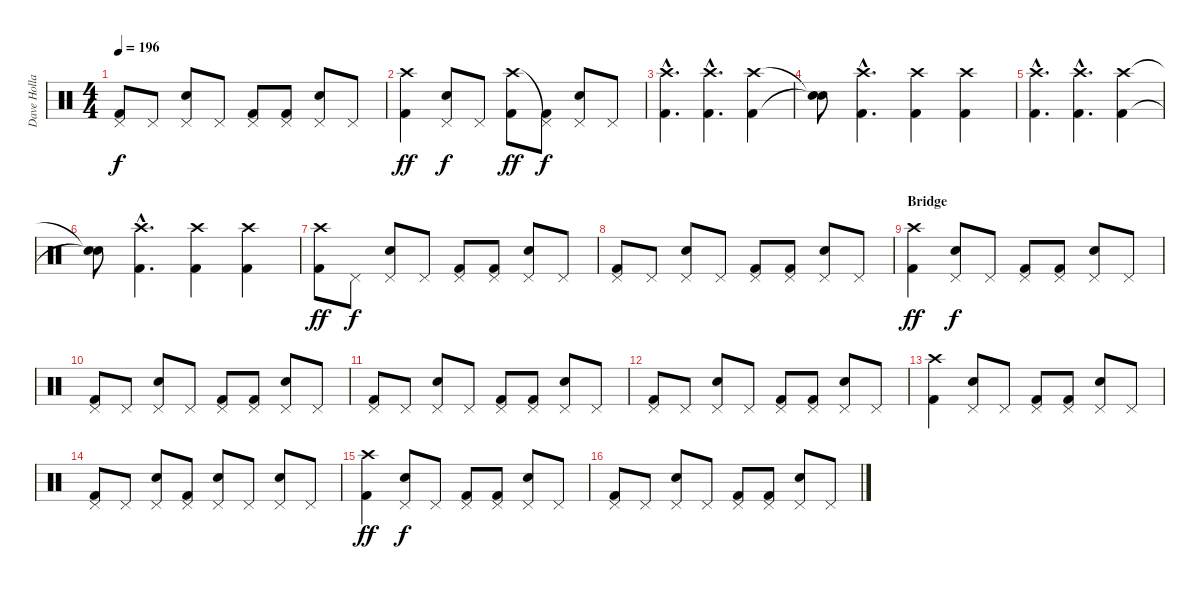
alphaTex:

\track ("Dave Holland" "Dave Holla") {instrument percussion}
\staff {score}
\articulation defaults
\ts (4 4)
\tempo 196
\clef neutral
\ks c
("Pedal Hi-Hat (hit)" "Kick (hit) 2").8{dy f} "Pedal Hi-Hat (hit)".8 ("Pedal Hi-Hat (hit)" "Snare (hit) 2").8 "Pedal Hi-Hat (hit)".8 ("Pedal Hi-Hat (hit)" "Kick (hit) 2").8 ("Pedal Hi-Hat (hit)" "Kick (hit) 2").8 ("Pedal Hi-Hat (hit)" "Snare (hit) 2").8 "Pedal Hi-Hat (hit)".8 |
("Crash high (hit)" "Kick (hit) 2").4{dy ff} ("Pedal Hi-Hat (hit)" "Snare (hit) 2").8{dy f} "Pedal Hi-Hat (hit)".8 ("Crash high (hit)" "Kick (hit) 2").8{dy ff} ("Pedal Hi-Hat (hit)"{t} "Kick (hit) 2").8{dy f} ("Pedal Hi-Hat (hit)" "Snare (hit) 2").8 "Pedal Hi-Hat (hit)".8 |
("Crash high (hit)"{hac} "Kick (hit) 2"{hac}).4{d} ("Crash high (hit)"{hac} "Kick (hit) 2"{hac}).4{d} ("Crash high (hit)" "Kick (hit) 2").4 |
("Snare (hit)"{t} "Snare (hit)"{t}).8 ("Crash high (hit)"{hac} "Kick (hit) 2"{hac}).4{d} ("Crash high (hit)" "Kick (hit) 2").4 ("Crash high (hit)" "Kick (hit) 2").4 |
("Crash high (hit)"{hac} "Kick (hit) 2"{hac}).4{d} ("Crash high (hit)"{hac} "Kick (hit) 2"{hac}).4{d} ("Crash high (hit)" "Kick (hit) 2").4 |
("Snare (hit)"{t} "Snare (hit)"{t}).8 ("Crash high (hit)"{hac} "Kick (hit) 2"{hac}).4{d} ("Crash high (hit)" "Kick (hit) 2").4 ("Crash high (hit)" "Kick (hit) 2").4 |
("Crash high (hit)" "Kick (hit) 2").8{dy ff} "Pedal Hi-Hat (hit)".8{dy f} ("Pedal Hi-Hat (hit)" "Snare (hit) 2").8 "Pedal Hi-Hat (hit)".8 ("Pedal Hi-Hat (hit)" "Kick (hit) 2").8 ("Pedal Hi-Hat (hit)" "Kick (hit) 2").8 ("Pedal Hi-Hat (hit)" "Snare (hit) 2").8 "Pedal Hi-Hat (hit)".8 |
("Pedal Hi-Hat (hit)" "Kick (hit) 2").8 "Pedal Hi-Hat (hit)".8 ("Pedal Hi-Hat (hit)" "Snare (hit) 2").8 "Pedal Hi-Hat (hit)".8 ("Pedal Hi-Hat (hit)" "Kick (hit) 2").8 ("Pedal Hi-Hat (hit)" "Kick (hit) 2").8 ("Pedal Hi-Hat (hit)" "Snare (hit) 2").8 "Pedal Hi-Hat (hit)".8 |
\section ("" "Bridge")
("Crash high (hit)" "Kick (hit) 2").4{dy ff} ("Pedal Hi-Hat (hit)" "Snare (hit) 2").8{dy f} "Pedal Hi-Hat (hit)".8 ("Pedal Hi-Hat (hit)" "Kick (hit) 2").8 ("Pedal Hi-Hat (hit)" "Kick (hit) 2").8 ("Pedal Hi-Hat (hit)" "Snare (hit) 2").8 "Pedal Hi-Hat (hit)".8 |
("Pedal Hi-Hat (hit)" "Kick (hit) 2").8 "Pedal Hi-Hat (hit)".8 ("Pedal Hi-Hat (hit)" "Snare (hit) 2").8 "Pedal Hi-Hat (hit)".8 ("Pedal Hi-Hat (hit)" "Kick (hit) 2").8 ("Pedal Hi-Hat (hit)" "Kick (hit) 2").8 ("Pedal Hi-Hat (hit)" "Snare (hit) 2").8 "Pedal Hi-Hat (hit)".8 |
("Pedal Hi-Hat (hit)" "Kick (hit) 2").8 "Pedal Hi-Hat (hit)".8 ("Pedal Hi-Hat (hit)" "Snare (hit) 2").8 "Pedal Hi-Hat (hit)".8 ("Pedal Hi-Hat (hit)" "Kick (hit) 2").8 ("Pedal Hi-Hat (hit)" "Kick (hit) 2").8 ("Pedal Hi-Hat (hit)" "Snare (hit) 2").8 "Pedal Hi-Hat (hit)".8 |
("Pedal Hi-Hat (hit)" "Kick (hit) 2").8 "Pedal Hi-Hat (hit)".8 ("Pedal Hi-Hat (hit)" "Snare (hit) 2").8 "Pedal Hi-Hat (hit)".8 ("Pedal Hi-Hat (hit)" "Kick (hit) 2").8 ("Pedal Hi-Hat (hit)" "Kick (hit) 2").8 ("Pedal Hi-Hat (hit)" "Snare (hit) 2").8 "Pedal Hi-Hat (hit)".8 |
("Crash high (hit)" "Kick (hit) 2").4 ("Pedal Hi-Hat (hit)" "Snare (hit) 2").8 "Pedal Hi-Hat (hit)".8 ("Pedal Hi-Hat (hit)" "Kick (hit) 2").8 ("Pedal Hi-Hat (hit)" "Kick (hit) 2").8 ("Pedal Hi-Hat (hit)" "Snare (hit) 2").8 "Pedal Hi-Hat (hit)".8 |
("Pedal Hi-Hat (hit)" "Kick (hit) 2").8 "Pedal Hi-Hat (hit)".8 ("Pedal Hi-Hat (hit)" "Electric Snare (hit)").8 ("Pedal Hi-Hat (hit)" "Kick (hit) 2").8 ("Pedal Hi-Hat (hit)" "Electric Snare (hit)").8 "Pedal Hi-Hat (hit)".8 ("Pedal Hi-Hat (hit)" "Electric Snare (hit)").8 "Pedal Hi-Hat (hit)".8 |
("Crash high (hit)" "Kick (hit) 2").4{dy ff} ("Pedal Hi-Hat (hit)" "Snare (hit) 2").8{dy f} "Pedal Hi-Hat (hit)".8 ("Pedal Hi-Hat (hit)" "Kick (hit) 2").8 ("Pedal Hi-Hat (hit)" "Kick (hit) 2").8 ("Pedal Hi-Hat (hit)" "Snare (hit) 2").8 "Pedal Hi-Hat (hit)".8 |
("Pedal Hi-Hat (hit)" "Kick (hit) 2").8 "Pedal Hi-Hat (hit)".8 ("Pedal Hi-Hat (hit)" "Snare (hit) 2").8 "Pedal Hi-Hat (hit)".8 ("Pedal Hi-Hat (hit)" "Kick (hit) 2").8 ("Pedal Hi-Hat (hit)" "Kick (hit) 2").8 ("Pedal Hi-Hat (hit)" "Snare (hit) 2").8 "Pedal Hi-Hat (hit)".8
